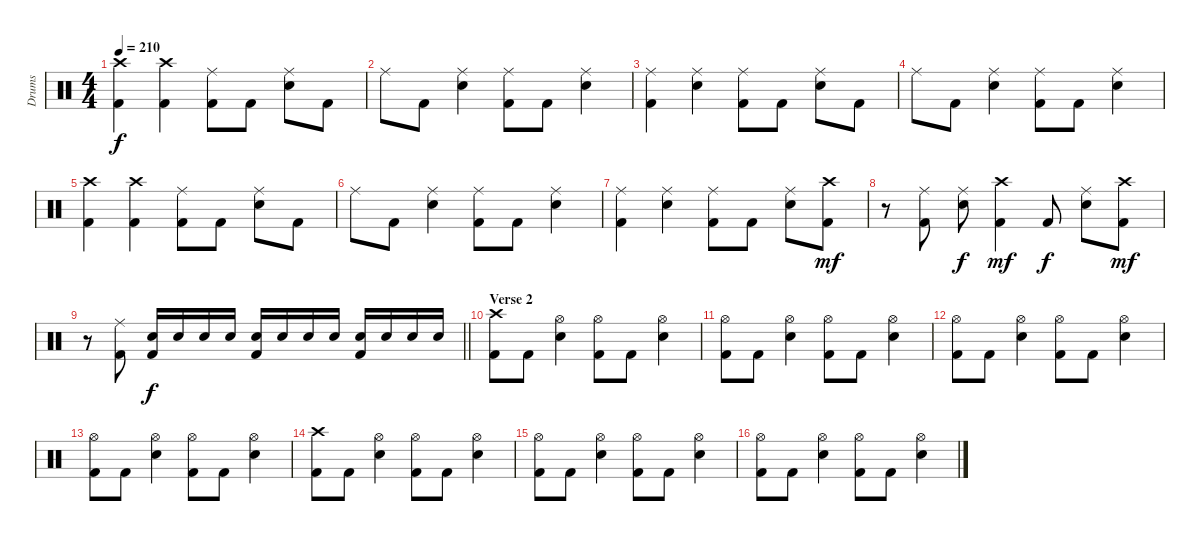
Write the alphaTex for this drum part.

\track ("Drums" "Drums") {instrument percussion}
\staff {score}
\articulation defaults
\ts (4 4)
\tempo 210
\clef neutral
\ks c
("Crash high (hit)" "Kick (hit) 2").4{dy f} ("Crash high (hit)" "Kick (hit) 2").4 ("Ride (middle)" "Kick (hit) 2").8 "Kick (hit) 2".8 ("Ride (middle)" "Snare (hit) 2").8 "Kick (hit) 2".8 |
"Ride (middle)".8 "Kick (hit) 2".8 ("Ride (middle)" "Snare (hit) 2").4 ("Ride (middle)" "Kick (hit) 2").8 "Kick (hit) 2".8 ("Ride (middle)" "Snare (hit) 2").4 |
("Ride (middle)" "Kick (hit) 2").4 ("Ride (middle)" "Snare (hit) 2").4 ("Ride (middle)" "Kick (hit) 2").8 "Kick (hit) 2".8 ("Ride (middle)" "Snare (hit) 2").8 "Kick (hit) 2".8 |
"Ride (middle)".8 "Kick (hit) 2".8 ("Ride (middle)" "Snare (hit) 2").4 ("Ride (middle)" "Kick (hit) 2").8 "Kick (hit) 2".8 ("Ride (middle)" "Snare (hit) 2").4 |
("Crash high (hit)" "Kick (hit) 2").4 ("Crash high (hit)" "Kick (hit) 2").4 ("Ride (middle)" "Kick (hit) 2").8 "Kick (hit) 2".8 ("Ride (middle)" "Snare (hit) 2").8 "Kick (hit) 2".8 |
"Ride (middle)".8 "Kick (hit) 2".8 ("Ride (middle)" "Snare (hit) 2").4 ("Ride (middle)" "Kick (hit) 2").8 "Kick (hit) 2".8 ("Ride (middle)" "Snare (hit) 2").4 |
("Ride (middle)" "Kick (hit) 2").4 ("Ride (middle)" "Snare (hit) 2").4 ("Ride (middle)" "Kick (hit) 2").8 "Kick (hit) 2".8 ("Ride (middle)" "Snare (hit) 2").8 ("Crash high (hit)" "Kick (hit) 2").8{dy mf} |
r.8 ("Ride (middle)" "Kick (hit) 2").8 ("Ride (middle)" "Snare (hit) 2").8{dy f} ("Crash high (hit)" "Kick (hit) 2").4{dy mf} "Kick (hit) 2".8{dy f} ("Ride (middle)" "Snare (hit) 2").8 ("Crash high (hit)" "Kick (hit) 2").8{dy mf} |
\barLineRight lightlight
r.8 ("Ride (middle)" "Kick (hit) 2").8 ("Snare (hit) 2" "Kick (hit) 2").16{dy f} "Snare (hit) 2".16 "Snare (hit) 2".16 "Snare (hit) 2".16 ("Snare (hit) 2" "Kick (hit) 2").16 "Snare (hit) 2".16 "Snare (hit) 2".16 "Snare (hit) 2".16 ("Snare (hit) 2" "Kick (hit) 2").16 "Snare (hit) 2".16 "Snare (hit) 2".16 "Snare (hit) 2".16 |
\section ("" "Verse 2")
("Crash high (hit)" "Kick (hit) 2").8 "Kick (hit) 2".8 ("Hi-Hat (open)" "Snare (hit) 2").4 ("Hi-Hat (open)" "Kick (hit) 2").8 "Kick (hit) 2".8 ("Hi-Hat (open)" "Snare (hit) 2").4 |
("Hi-Hat (open)" "Kick (hit) 2").8 "Kick (hit) 2".8 ("Hi-Hat (open)" "Snare (hit) 2").4 ("Hi-Hat (open)" "Kick (hit) 2").8 "Kick (hit) 2".8 ("Hi-Hat (open)" "Snare (hit) 2").4 |
("Hi-Hat (open)" "Kick (hit) 2").8 "Kick (hit) 2".8 ("Hi-Hat (open)" "Snare (hit) 2").4 ("Hi-Hat (open)" "Kick (hit) 2").8 "Kick (hit) 2".8 ("Hi-Hat (open)" "Snare (hit) 2").4 |
("Hi-Hat (open)" "Kick (hit) 2").8 "Kick (hit) 2".8 ("Hi-Hat (open)" "Snare (hit) 2").4 ("Hi-Hat (open)" "Kick (hit) 2").8 "Kick (hit) 2".8 ("Hi-Hat (open)" "Snare (hit) 2").4 |
("Crash high (hit)" "Kick (hit) 2").8 "Kick (hit) 2".8 ("Hi-Hat (open)" "Snare (hit) 2").4 ("Hi-Hat (open)" "Kick (hit) 2").8 "Kick (hit) 2".8 ("Hi-Hat (open)" "Snare (hit) 2").4 |
("Hi-Hat (open)" "Kick (hit) 2").8 "Kick (hit) 2".8 ("Hi-Hat (open)" "Snare (hit) 2").4 ("Hi-Hat (open)" "Kick (hit) 2").8 "Kick (hit) 2".8 ("Hi-Hat (open)" "Snare (hit) 2").4 |
("Hi-Hat (open)" "Kick (hit) 2").8 "Kick (hit) 2".8 ("Hi-Hat (open)" "Snare (hit) 2").4 ("Hi-Hat (open)" "Kick (hit) 2").8 "Kick (hit) 2".8 ("Hi-Hat (open)" "Snare (hit) 2").4
